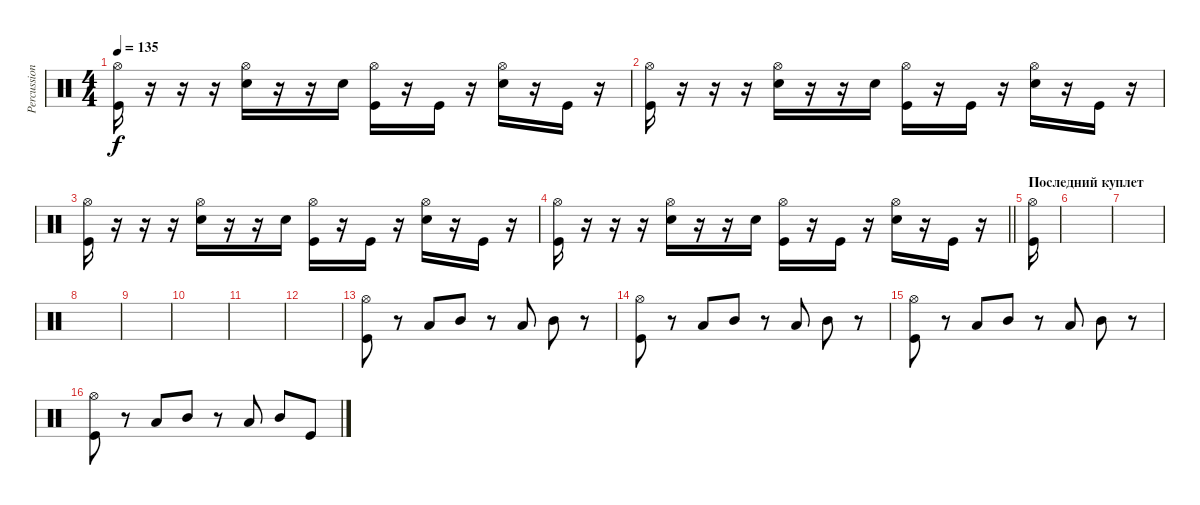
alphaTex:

\track ("Percussion" "Percussion") {instrument percussion}
\staff {score}
\articulation defaults
\ts (4 4)
\tempo 135
\clef neutral
\ks c
("Hi-Hat (open)" "Kick (hit)").16{dy f} r.16 r.16 r.16 ("Hi-Hat (open)" "Snare (hit) 2").16 r.16 r.16 "Snare (hit) 2".16 ("Hi-Hat (open)" "Kick (hit)").16 r.16 "Kick (hit)".16 r.16 ("Hi-Hat (open)" "Snare (hit) 2").16 r.16 "Kick (hit)".16 r.16 |
("Hi-Hat (open)" "Kick (hit)").16 r.16 r.16 r.16 ("Hi-Hat (open)" "Snare (hit) 2").16 r.16 r.16 "Snare (hit) 2".16 ("Hi-Hat (open)" "Kick (hit)").16 r.16 "Kick (hit)".16 r.16 ("Hi-Hat (open)" "Snare (hit) 2").16 r.16 "Kick (hit)".16 r.16 |
("Hi-Hat (open)" "Kick (hit)").16 r.16 r.16 r.16 ("Hi-Hat (open)" "Snare (hit) 2").16 r.16 r.16 "Snare (hit) 2".16 ("Hi-Hat (open)" "Kick (hit)").16 r.16 "Kick (hit)".16 r.16 ("Hi-Hat (open)" "Snare (hit) 2").16 r.16 "Kick (hit)".16 r.16 |
\barLineRight lightlight
("Hi-Hat (open)" "Kick (hit)").16 r.16 r.16 r.16 ("Hi-Hat (open)" "Snare (hit) 2").16 r.16 r.16 "Snare (hit) 2".16 ("Hi-Hat (open)" "Kick (hit)").16 r.16 "Kick (hit)".16 r.16 ("Hi-Hat (open)" "Snare (hit) 2").16 r.16 "Kick (hit)".16 r.16 |
\section ("" "Последний куплет")
("Hi-Hat (open)" "Kick (hit)").16 |
|
|
|
|
|
|
|
("Kick (hit)" "Hi-Hat (open)").8 r.8 "Low Tom (hit)".8 "Mid Tom (hit)".8 r.8 "Low Tom (hit)".8 "Mid Tom (hit)".8 r.8 |
("Kick (hit)" "Hi-Hat (open)").8 r.8 "Low Tom (hit)".8 "Mid Tom (hit)".8 r.8 "Low Tom (hit)".8 "Mid Tom (hit)".8 r.8 |
("Kick (hit)" "Hi-Hat (open)").8 r.8 "Low Tom (hit)".8 "Mid Tom (hit)".8 r.8 "Low Tom (hit)".8 "Mid Tom (hit)".8 r.8 |
("Kick (hit)" "Hi-Hat (open)").8 r.8 "Low Tom (hit)".8 "Mid Tom (hit)".8 r.8 "Low Tom (hit)".8 "Mid Tom (hit)".8 "Kick (hit)".8
